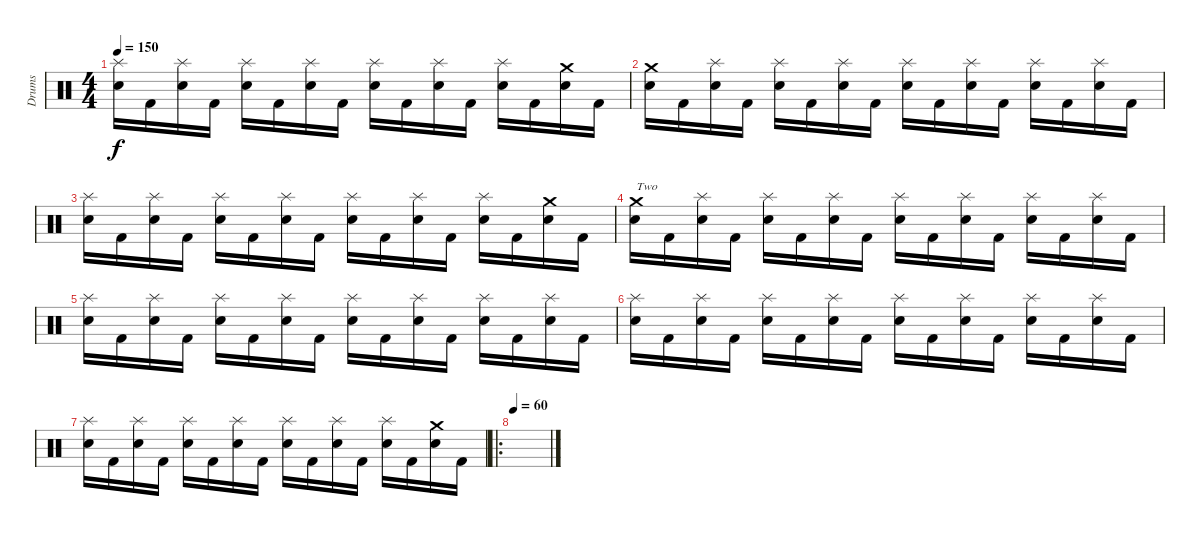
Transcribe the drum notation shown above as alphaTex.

\track ("Drums" "Drums") {instrument percussion}
\staff {score}
\articulation defaults
\ts (4 4)
\tempo 150
\clef neutral
\ks c
("Splash (hit)" "Snare (hit) 2").16{dy f} "Kick (hit) 2".16 ("Splash (hit)" "Snare (hit) 2").16 "Kick (hit) 2".16 ("Splash (hit)" "Snare (hit) 2").16 "Kick (hit) 2".16 ("Splash (hit)" "Snare (hit) 2").16 "Kick (hit) 2".16 ("Splash (hit)" "Snare (hit) 2").16 "Kick (hit) 2".16 ("Splash (hit)" "Snare (hit) 2").16 "Kick (hit) 2".16 ("Splash (hit)" "Snare (hit) 2").16 "Kick (hit) 2".16 ("Crash medium (hit)" "Snare (hit) 2").16 "Kick (hit) 2".16 |
("Crash medium (hit)" "Snare (hit) 2").16 "Kick (hit) 2".16 ("Splash (hit)" "Snare (hit) 2").16 "Kick (hit) 2".16 ("Splash (hit)" "Snare (hit) 2").16 "Kick (hit) 2".16 ("Splash (hit)" "Snare (hit) 2").16 "Kick (hit) 2".16 ("Splash (hit)" "Snare (hit) 2").16 "Kick (hit) 2".16 ("Splash (hit)" "Snare (hit) 2").16 "Kick (hit) 2".16 ("Splash (hit)" "Snare (hit) 2").16 "Kick (hit) 2".16 ("Splash (hit)" "Snare (hit) 2").16 "Kick (hit) 2".16 |
("Splash (hit)" "Snare (hit) 2").16 "Kick (hit) 2".16 ("Splash (hit)" "Snare (hit) 2").16 "Kick (hit) 2".16 ("Splash (hit)" "Snare (hit) 2").16 "Kick (hit) 2".16 ("Splash (hit)" "Snare (hit) 2").16 "Kick (hit) 2".16 ("Splash (hit)" "Snare (hit) 2").16 "Kick (hit) 2".16 ("Splash (hit)" "Snare (hit) 2").16 "Kick (hit) 2".16 ("Splash (hit)" "Snare (hit) 2").16 "Kick (hit) 2".16 ("Crash medium (hit)" "Snare (hit) 2").16 "Kick (hit) 2".16 |
("Crash medium (hit)" "Snare (hit) 2").16{txt "Two"} "Kick (hit) 2".16 ("Splash (hit)" "Snare (hit) 2").16 "Kick (hit) 2".16 ("Splash (hit)" "Snare (hit) 2").16 "Kick (hit) 2".16 ("Splash (hit)" "Snare (hit) 2").16 "Kick (hit) 2".16 ("Splash (hit)" "Snare (hit) 2").16 "Kick (hit) 2".16 ("Splash (hit)" "Snare (hit) 2").16 "Kick (hit) 2".16 ("Splash (hit)" "Snare (hit) 2").16 "Kick (hit) 2".16 ("Splash (hit)" "Snare (hit) 2").16 "Kick (hit) 2".16 |
("Splash (hit)" "Snare (hit) 2").16 "Kick (hit) 2".16 ("Splash (hit)" "Snare (hit) 2").16 "Kick (hit) 2".16 ("Splash (hit)" "Snare (hit) 2").16 "Kick (hit) 2".16 ("Splash (hit)" "Snare (hit) 2").16 "Kick (hit) 2".16 ("Splash (hit)" "Snare (hit) 2").16 "Kick (hit) 2".16 ("Splash (hit)" "Snare (hit) 2").16 "Kick (hit) 2".16 ("Splash (hit)" "Snare (hit) 2").16 "Kick (hit) 2".16 ("Splash (hit)" "Snare (hit) 2").16 "Kick (hit) 2".16 |
("Splash (hit)" "Snare (hit) 2").16 "Kick (hit) 2".16 ("Splash (hit)" "Snare (hit) 2").16 "Kick (hit) 2".16 ("Splash (hit)" "Snare (hit) 2").16 "Kick (hit) 2".16 ("Splash (hit)" "Snare (hit) 2").16 "Kick (hit) 2".16 ("Splash (hit)" "Snare (hit) 2").16 "Kick (hit) 2".16 ("Splash (hit)" "Snare (hit) 2").16 "Kick (hit) 2".16 ("Splash (hit)" "Snare (hit) 2").16 "Kick (hit) 2".16 ("Splash (hit)" "Snare (hit) 2").16 "Kick (hit) 2".16 |
("Splash (hit)" "Snare (hit) 2").16 "Kick (hit) 2".16 ("Splash (hit)" "Snare (hit) 2").16 "Kick (hit) 2".16 ("Splash (hit)" "Snare (hit) 2").16 "Kick (hit) 2".16 ("Splash (hit)" "Snare (hit) 2").16 "Kick (hit) 2".16 ("Splash (hit)" "Snare (hit) 2").16 "Kick (hit) 2".16 ("Splash (hit)" "Snare (hit) 2").16 "Kick (hit) 2".16 ("Splash (hit)" "Snare (hit) 2").16 "Kick (hit) 2".16 ("Crash medium (hit)" "Snare (hit) 2").16 "Kick (hit) 2".16 |
\ro
\tempo 60
